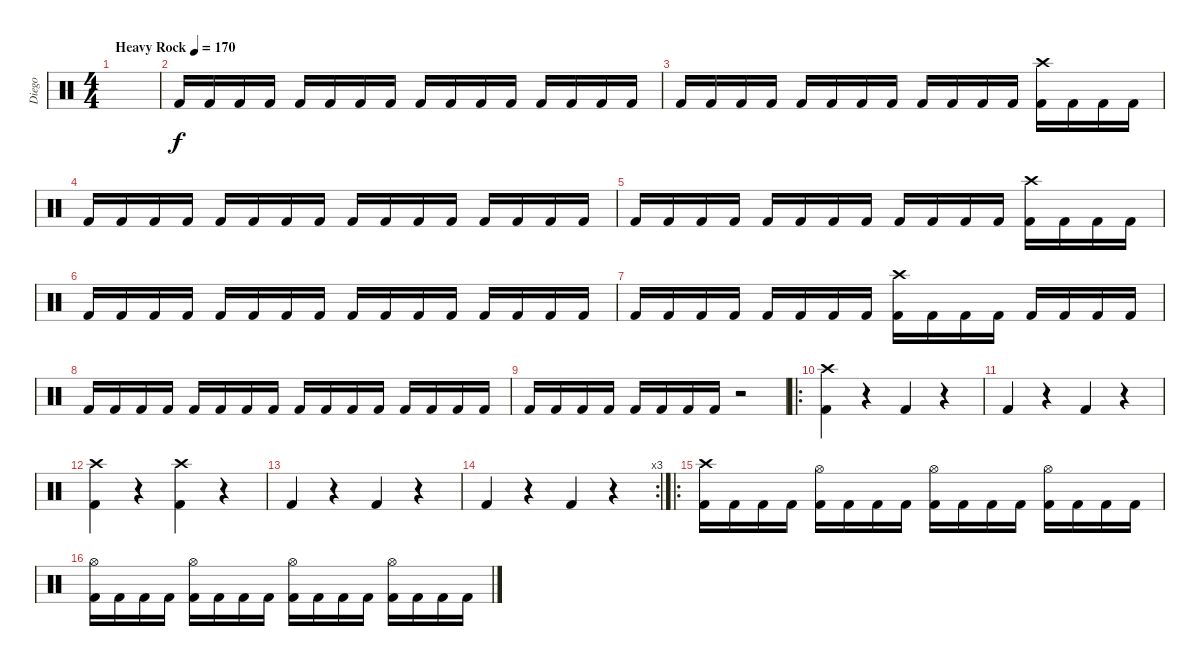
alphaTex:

\track ("Diego" "Diego") {instrument percussion}
\staff {score}
\articulation defaults
\ts (4 4)
\tempo (170 "Heavy Rock")
\clef neutral
\ks c
|
"Kick (hit) 2".16 "Kick (hit) 2".16 "Kick (hit) 2".16 "Kick (hit) 2".16 "Kick (hit) 2".16 "Kick (hit) 2".16 "Kick (hit) 2".16 "Kick (hit) 2".16 "Kick (hit) 2".16 "Kick (hit) 2".16 "Kick (hit) 2".16 "Kick (hit) 2".16 "Kick (hit) 2".16 "Kick (hit) 2".16 "Kick (hit) 2".16 "Kick (hit) 2".16 |
"Kick (hit) 2".16 "Kick (hit) 2".16 "Kick (hit) 2".16 "Kick (hit) 2".16 "Kick (hit) 2".16 "Kick (hit) 2".16 "Kick (hit) 2".16 "Kick (hit) 2".16 "Kick (hit) 2".16 "Kick (hit) 2".16 "Kick (hit) 2".16 "Kick (hit) 2".16 ("Crash high (hit)" "Kick (hit) 2").16 "Kick (hit) 2".16 "Kick (hit) 2".16 "Kick (hit) 2".16 |
"Kick (hit) 2".16 "Kick (hit) 2".16 "Kick (hit) 2".16 "Kick (hit) 2".16 "Kick (hit) 2".16 "Kick (hit) 2".16 "Kick (hit) 2".16 "Kick (hit) 2".16 "Kick (hit) 2".16 "Kick (hit) 2".16 "Kick (hit) 2".16 "Kick (hit) 2".16 "Kick (hit) 2".16 "Kick (hit) 2".16 "Kick (hit) 2".16 "Kick (hit) 2".16 |
"Kick (hit) 2".16 "Kick (hit) 2".16 "Kick (hit) 2".16 "Kick (hit) 2".16 "Kick (hit) 2".16 "Kick (hit) 2".16 "Kick (hit) 2".16 "Kick (hit) 2".16 "Kick (hit) 2".16 "Kick (hit) 2".16 "Kick (hit) 2".16 "Kick (hit) 2".16 ("Crash high (hit)" "Kick (hit) 2").16 "Kick (hit) 2".16 "Kick (hit) 2".16 "Kick (hit) 2".16 |
"Kick (hit) 2".16 "Kick (hit) 2".16 "Kick (hit) 2".16 "Kick (hit) 2".16 "Kick (hit) 2".16 "Kick (hit) 2".16 "Kick (hit) 2".16 "Kick (hit) 2".16 "Kick (hit) 2".16 "Kick (hit) 2".16 "Kick (hit) 2".16 "Kick (hit) 2".16 "Kick (hit) 2".16 "Kick (hit) 2".16 "Kick (hit) 2".16 "Kick (hit) 2".16 |
"Kick (hit) 2".16 "Kick (hit) 2".16 "Kick (hit) 2".16 "Kick (hit) 2".16 "Kick (hit) 2".16 "Kick (hit) 2".16 "Kick (hit) 2".16 "Kick (hit) 2".16 ("Crash high (hit)" "Kick (hit) 2").16 "Kick (hit) 2".16 "Kick (hit) 2".16 "Kick (hit) 2".16 "Kick (hit) 2".16 "Kick (hit) 2".16 "Kick (hit) 2".16 "Kick (hit) 2".16 |
"Kick (hit) 2".16 "Kick (hit) 2".16 "Kick (hit) 2".16 "Kick (hit) 2".16 "Kick (hit) 2".16 "Kick (hit) 2".16 "Kick (hit) 2".16 "Kick (hit) 2".16 "Kick (hit) 2".16 "Kick (hit) 2".16 "Kick (hit) 2".16 "Kick (hit) 2".16 "Kick (hit) 2".16 "Kick (hit) 2".16 "Kick (hit) 2".16 "Kick (hit) 2".16 |
"Kick (hit) 2".16 "Kick (hit) 2".16 "Kick (hit) 2".16 "Kick (hit) 2".16 "Kick (hit) 2".16 "Kick (hit) 2".16 "Kick (hit) 2".16 "Kick (hit) 2".16 r.2 |
\ro
("Crash high (hit)" "Kick (hit) 2").4 r.4 "Kick (hit) 2".4 r.4 |
"Kick (hit) 2".4 r.4 "Kick (hit) 2".4 r.4 |
("Crash high (hit)" "Kick (hit) 2").4 r.4 ("Crash high (hit)" "Kick (hit) 2").4 r.4 |
"Kick (hit) 2".4 r.4 "Kick (hit) 2".4 r.4 |
\rc 3 "Kick (hit) 2".4
r.4 "Kick (hit) 2".4 r.4 |
\ro
("Kick (hit) 2" "Crash high (hit)").16 "Kick (hit) 2".16 "Kick (hit) 2".16 "Kick (hit) 2".16 ("Kick (hit) 2" "Hi-Hat (open)").16 "Kick (hit) 2".16 "Kick (hit) 2".16 "Kick (hit) 2".16 ("Kick (hit) 2" "Hi-Hat (open)").16 "Kick (hit) 2".16 "Kick (hit) 2".16 "Kick (hit) 2".16 ("Kick (hit) 2" "Hi-Hat (open)").16 "Kick (hit) 2".16 "Kick (hit) 2".16 "Kick (hit) 2".16 |
("Kick (hit) 2" "Hi-Hat (open)").16 "Kick (hit) 2".16 "Kick (hit) 2".16 "Kick (hit) 2".16 ("Kick (hit) 2" "Hi-Hat (open)").16 "Kick (hit) 2".16 "Kick (hit) 2".16 "Kick (hit) 2".16 ("Kick (hit) 2" "Hi-Hat (open)").16 "Kick (hit) 2".16 "Kick (hit) 2".16 "Kick (hit) 2".16 ("Kick (hit) 2" "Hi-Hat (open)").16 "Kick (hit) 2".16 "Kick (hit) 2".16 "Kick (hit) 2".16
